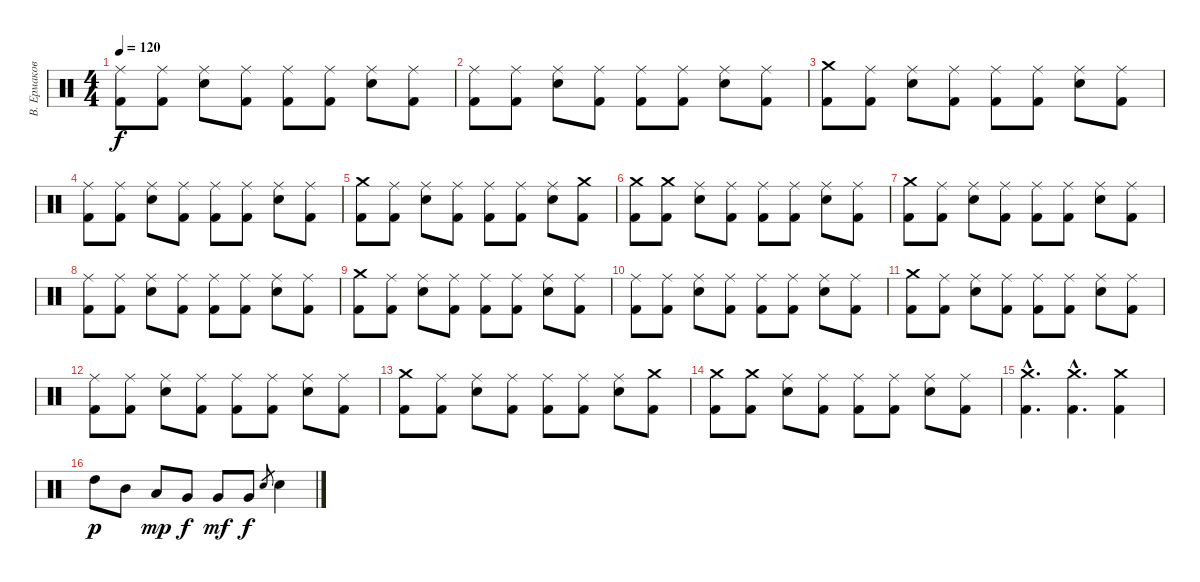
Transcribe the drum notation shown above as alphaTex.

\track ("В. Ермаков" "В. Ермаков") {instrument percussion}
\staff {score}
\articulation defaults
\ts (4 4)
\tempo 120
\clef neutral
\ks c
("Ride (middle)" "Kick (hit) 2").8{dy f} ("Ride (middle)" "Kick (hit) 2").8 ("Ride (middle)" "Electric Snare (hit)").8 ("Ride (middle)" "Kick (hit) 2").8 ("Ride (middle)" "Kick (hit) 2").8 ("Ride (middle)" "Kick (hit) 2").8 ("Ride (middle)" "Electric Snare (hit)").8 ("Ride (middle)" "Kick (hit) 2").8 |
("Ride (middle)" "Kick (hit) 2").8 ("Ride (middle)" "Kick (hit) 2").8 ("Ride (middle)" "Electric Snare (hit)").8 ("Ride (middle)" "Kick (hit) 2").8 ("Ride (middle)" "Kick (hit) 2").8 ("Ride (middle)" "Kick (hit) 2").8 ("Ride (middle)" "Electric Snare (hit)").8 ("Ride (middle)" "Kick (hit) 2").8 |
("Crash medium (hit)" "Kick (hit) 2").8 ("Ride (middle)" "Kick (hit) 2").8 ("Ride (middle)" "Electric Snare (hit)").8 ("Ride (middle)" "Kick (hit) 2").8 ("Ride (middle)" "Kick (hit) 2").8 ("Ride (middle)" "Kick (hit) 2").8 ("Ride (middle)" "Electric Snare (hit)").8 ("Ride (middle)" "Kick (hit) 2").8 |
("Ride (middle)" "Kick (hit) 2").8 ("Ride (middle)" "Kick (hit) 2").8 ("Ride (middle)" "Electric Snare (hit)").8 ("Ride (middle)" "Kick (hit) 2").8 ("Ride (middle)" "Kick (hit) 2").8 ("Ride (middle)" "Kick (hit) 2").8 ("Ride (middle)" "Electric Snare (hit)").8 ("Ride (middle)" "Kick (hit) 2").8 |
("Crash medium (hit)" "Kick (hit) 2").8 ("Ride (middle)" "Kick (hit) 2").8 ("Ride (middle)" "Electric Snare (hit)").8 ("Ride (middle)" "Kick (hit) 2").8 ("Ride (middle)" "Kick (hit) 2").8 ("Ride (middle)" "Kick (hit) 2").8 ("Ride (middle)" "Electric Snare (hit)").8 ("Crash medium (hit)" "Kick (hit) 2").8 |
("Crash medium (hit)" "Kick (hit) 2").8 ("Crash medium (hit)" "Kick (hit) 2").8 ("Ride (middle)" "Electric Snare (hit)").8 ("Ride (middle)" "Kick (hit) 2").8 ("Ride (middle)" "Kick (hit) 2").8 ("Ride (middle)" "Kick (hit) 2").8 ("Ride (middle)" "Electric Snare (hit)").8 ("Ride (middle)" "Kick (hit) 2").8 |
("Crash medium (hit)" "Kick (hit) 2").8 ("Ride (middle)" "Kick (hit) 2").8 ("Ride (middle)" "Electric Snare (hit)").8 ("Ride (middle)" "Kick (hit) 2").8 ("Ride (middle)" "Kick (hit) 2").8 ("Ride (middle)" "Kick (hit) 2").8 ("Ride (middle)" "Electric Snare (hit)").8 ("Ride (middle)" "Kick (hit) 2").8 |
("Ride (middle)" "Kick (hit) 2").8 ("Ride (middle)" "Kick (hit) 2").8 ("Ride (middle)" "Electric Snare (hit)").8 ("Ride (middle)" "Kick (hit) 2").8 ("Ride (middle)" "Kick (hit) 2").8 ("Ride (middle)" "Kick (hit) 2").8 ("Ride (middle)" "Electric Snare (hit)").8 ("Ride (middle)" "Kick (hit) 2").8 |
("Crash medium (hit)" "Kick (hit) 2").8 ("Ride (middle)" "Kick (hit) 2").8 ("Ride (middle)" "Electric Snare (hit)").8 ("Ride (middle)" "Kick (hit) 2").8 ("Ride (middle)" "Kick (hit) 2").8 ("Ride (middle)" "Kick (hit) 2").8 ("Ride (middle)" "Electric Snare (hit)").8 ("Ride (middle)" "Kick (hit) 2").8 |
("Ride (middle)" "Kick (hit) 2").8 ("Ride (middle)" "Kick (hit) 2").8 ("Ride (middle)" "Electric Snare (hit)").8 ("Ride (middle)" "Kick (hit) 2").8 ("Ride (middle)" "Kick (hit) 2").8 ("Ride (middle)" "Kick (hit) 2").8 ("Ride (middle)" "Electric Snare (hit)").8 ("Ride (middle)" "Kick (hit) 2").8 |
("Crash medium (hit)" "Kick (hit) 2").8 ("Ride (middle)" "Kick (hit) 2").8 ("Ride (middle)" "Electric Snare (hit)").8 ("Ride (middle)" "Kick (hit) 2").8 ("Ride (middle)" "Kick (hit) 2").8 ("Ride (middle)" "Kick (hit) 2").8 ("Ride (middle)" "Electric Snare (hit)").8 ("Ride (middle)" "Kick (hit) 2").8 |
("Ride (middle)" "Kick (hit) 2").8 ("Ride (middle)" "Kick (hit) 2").8 ("Ride (middle)" "Electric Snare (hit)").8 ("Ride (middle)" "Kick (hit) 2").8 ("Ride (middle)" "Kick (hit) 2").8 ("Ride (middle)" "Kick (hit) 2").8 ("Ride (middle)" "Electric Snare (hit)").8 ("Ride (middle)" "Kick (hit) 2").8 |
("Crash medium (hit)" "Kick (hit) 2").8 ("Ride (middle)" "Kick (hit) 2").8 ("Ride (middle)" "Electric Snare (hit)").8 ("Ride (middle)" "Kick (hit) 2").8 ("Ride (middle)" "Kick (hit) 2").8 ("Ride (middle)" "Kick (hit) 2").8 ("Ride (middle)" "Electric Snare (hit)").8 ("Crash medium (hit)" "Kick (hit) 2").8 |
("Crash medium (hit)" "Kick (hit) 2").8 ("Crash medium (hit)" "Kick (hit) 2").8 ("Ride (middle)" "Electric Snare (hit)").8 ("Ride (middle)" "Kick (hit) 2").8 ("Ride (middle)" "Kick (hit) 2").8 ("Ride (middle)" "Kick (hit) 2").8 ("Ride (middle)" "Electric Snare (hit)").8 ("Ride (middle)" "Kick (hit) 2").8 |
("Kick (hit) 2"{hac} "Crash medium (hit)"{hac}).4{d} ("Kick (hit) 2"{hac} "Crash medium (hit)"{hac}).4{d} ("Kick (hit) 2" "Crash medium (hit)").4 |
"High Tom (hit)".8{dy p} "Mid Tom (hit)".8 "Low Tom (hit)".8{dy mp} "Very Low Tom (hit)".8{dy f} "Very Low Tom (hit)".8{dy mf} "Very Low Tom (hit)".8{dy f} "Electric Snare (hit)".8{gr} "Electric Snare (hit)".4
